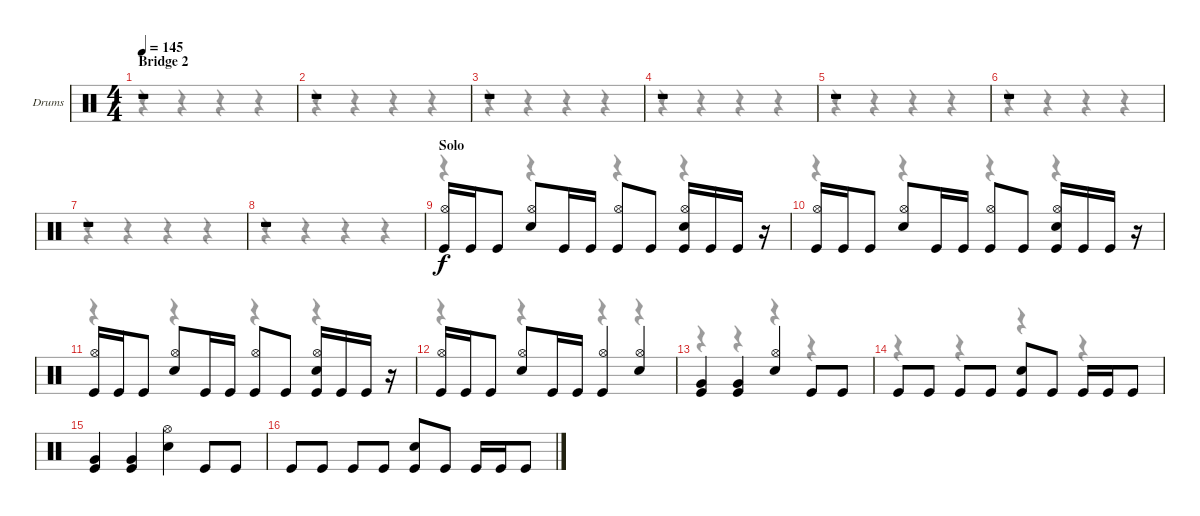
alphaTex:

\bracketExtendMode groupsimilarinstruments
\firstSystemTrackNameOrientation horizontal
\otherSystemsTrackNameOrientation horizontal
\track ("Drumkit" "Drums") {solo instrument percussion}
\staff {score}
\articulation defaults
\voice
\ts (4 4)
\section ("" "Bridge 2")
\tempo 145
\clef neutral
\ks c
r.1{dy f} |
r.1 |
r.1 |
r.1 |
r.1 |
r.1 |
r.1 |
r.1 |
\section ("" "Solo")
("Kick (hit)" "Hi-Hat (open)").16 "Kick (hit)".16 "Kick (hit)".8 ("Snare (hit) 2" "Hi-Hat (open)").8 "Kick (hit)".16 "Kick (hit)".16 ("Kick (hit)" "Hi-Hat (open)").8 "Kick (hit)".8 ("Kick (hit)" "Snare (hit) 2" "Hi-Hat (open)").16 "Kick (hit)".16 "Kick (hit)".16 r.16 |
("Kick (hit)" "Hi-Hat (open)").16 "Kick (hit)".16 "Kick (hit)".8 ("Snare (hit) 2" "Hi-Hat (open)").8 "Kick (hit)".16 "Kick (hit)".16 ("Kick (hit)" "Hi-Hat (open)").8 "Kick (hit)".8 ("Kick (hit)" "Snare (hit) 2" "Hi-Hat (open)").16 "Kick (hit)".16 "Kick (hit)".16 r.16 |
("Kick (hit)" "Hi-Hat (open)").16 "Kick (hit)".16 "Kick (hit)".8 ("Snare (hit) 2" "Hi-Hat (open)").8 "Kick (hit)".16 "Kick (hit)".16 ("Kick (hit)" "Hi-Hat (open)").8 "Kick (hit)".8 ("Kick (hit)" "Snare (hit) 2" "Hi-Hat (open)").16 "Kick (hit)".16 "Kick (hit)".16 r.16 |
("Kick (hit)" "Hi-Hat (open)").16 "Kick (hit)".16 "Kick (hit)".8 ("Snare (hit) 2" "Hi-Hat (open)").8 "Kick (hit)".16 "Kick (hit)".16 ("Kick (hit)" "Hi-Hat (open)").4 ("Snare (hit) 2" "Hi-Hat (open)").4 |
("Very Low Tom (hit)" "Kick (hit)").4 ("Very Low Tom (hit)" "Kick (hit)").4 ("Snare (hit) 2" "Hi-Hat (open)").4 "Kick (hit)".8 "Kick (hit)".8 |
"Kick (hit)".8 "Kick (hit)".8 "Kick (hit)".8 "Kick (hit)".8 ("Kick (hit)" "Snare (hit) 2").8 "Kick (hit)".8 "Kick (hit)".16 "Kick (hit)".16 "Kick (hit)".8 |
("Very Low Tom (hit)" "Kick (hit)").4 ("Very Low Tom (hit)" "Kick (hit)").4 ("Snare (hit) 2" "Hi-Hat (open)").4 "Kick (hit)".8 "Kick (hit)".8 |
"Kick (hit)".8 "Kick (hit)".8 "Kick (hit)".8 "Kick (hit)".8 ("Kick (hit)" "Snare (hit) 2").8 "Kick (hit)".8 "Kick (hit)".16 "Kick (hit)".16 "Kick (hit)".8
\voice
\clef neutral
\ottava regular
\simile none
\ks c
r.4{dy mf} r.4 r.4 r.4 |
r.4 r.4 r.4 r.4 |
r.4 r.4 r.4 r.4 |
r.4 r.4 r.4 r.4 |
r.4 r.4 r.4 r.4 |
r.4 r.4 r.4 r.4 |
r.4 r.4 r.4 r.4 |
r.4 r.4 r.4 r.4 |
r.4 r.4 r.4 r.4 |
r.4 r.4 r.4 r.4 |
r.4 r.4 r.4 r.4 |
r.4 r.4 r.4 r.4 |
r.4 r.4 r.4 r.4 |
r.4 r.4 r.4 r.4 |
|
